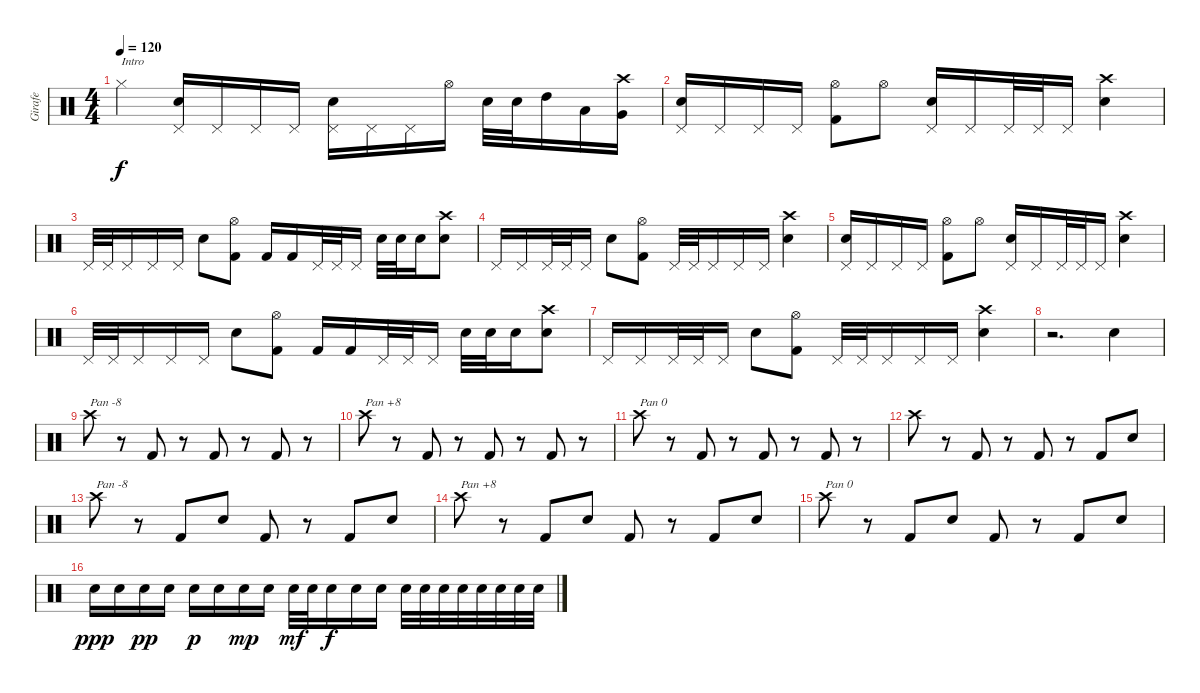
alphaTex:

\track ("Girafe" "Girafe") {instrument percussion}
\staff {score}
\articulation defaults
\ts (4 4)
\tempo 120
\clef neutral
\ks c "Hi-Hat (closed)".4{txt "Intro" dy f}
("Pedal Hi-Hat (hit)" "Electric Snare (hit)").16 "Pedal Hi-Hat (hit)".16 "Pedal Hi-Hat (hit)".16 "Pedal Hi-Hat (hit)".16 ("Pedal Hi-Hat (hit)" "Electric Snare (hit)").16 "Pedal Hi-Hat (hit)".16 "Pedal Hi-Hat (hit)".16 "Hi-Hat (open)".16 "Electric Snare (hit)".32 "Electric Snare (hit)".32 "High Tom (hit)".16 "Low Tom (hit)".16 ("Crash high (hit)" "Very Low Tom (hit)").16 |
("Pedal Hi-Hat (hit)" "Electric Snare (hit)").16 "Pedal Hi-Hat (hit)".16 "Pedal Hi-Hat (hit)".16 "Pedal Hi-Hat (hit)".16 ("Hi-Hat (open)" "Kick (hit) 2").8 "Hi-Hat (open)".8 ("Pedal Hi-Hat (hit)" "Electric Snare (hit)").16 "Pedal Hi-Hat (hit)".16 "Pedal Hi-Hat (hit)".32 "Pedal Hi-Hat (hit)".32 "Pedal Hi-Hat (hit)".16 ("Electric Snare (hit)" "Crash high (hit)").4 |
"Pedal Hi-Hat (hit)".32 "Pedal Hi-Hat (hit)".32 "Pedal Hi-Hat (hit)".16 "Pedal Hi-Hat (hit)".16 "Pedal Hi-Hat (hit)".16 "Electric Snare (hit)".8 ("Kick (hit) 2" "Hi-Hat (open)").8 "Kick (hit) 2".16 "Kick (hit) 2".16 "Pedal Hi-Hat (hit)".32 "Pedal Hi-Hat (hit)".32 "Pedal Hi-Hat (hit)".16 "Electric Snare (hit)".32 "Electric Snare (hit)".32 "Electric Snare (hit)".16 ("Electric Snare (hit)" "Crash high (hit)").8 |
"Pedal Hi-Hat (hit)".16 "Pedal Hi-Hat (hit)".16 "Pedal Hi-Hat (hit)".32 "Pedal Hi-Hat (hit)".32 "Pedal Hi-Hat (hit)".16 "Electric Snare (hit)".8 ("Kick (hit) 2" "Hi-Hat (open)").8 "Pedal Hi-Hat (hit)".32 "Pedal Hi-Hat (hit)".32 "Pedal Hi-Hat (hit)".16 "Pedal Hi-Hat (hit)".16 "Pedal Hi-Hat (hit)".16 ("Crash high (hit)" "Electric Snare (hit)").4 |
("Pedal Hi-Hat (hit)" "Electric Snare (hit)").16 "Pedal Hi-Hat (hit)".16 "Pedal Hi-Hat (hit)".16 "Pedal Hi-Hat (hit)".16 ("Hi-Hat (open)" "Kick (hit) 2").8 "Hi-Hat (open)".8 ("Pedal Hi-Hat (hit)" "Electric Snare (hit)").16 "Pedal Hi-Hat (hit)".16 "Pedal Hi-Hat (hit)".32 "Pedal Hi-Hat (hit)".32 "Pedal Hi-Hat (hit)".16 ("Electric Snare (hit)" "Crash high (hit)").4 |
"Pedal Hi-Hat (hit)".32 "Pedal Hi-Hat (hit)".32 "Pedal Hi-Hat (hit)".16 "Pedal Hi-Hat (hit)".16 "Pedal Hi-Hat (hit)".16 "Electric Snare (hit)".8 ("Kick (hit) 2" "Hi-Hat (open)").8 "Kick (hit) 2".16 "Kick (hit) 2".16 "Pedal Hi-Hat (hit)".32 "Pedal Hi-Hat (hit)".32 "Pedal Hi-Hat (hit)".16 "Electric Snare (hit)".32 "Electric Snare (hit)".32 "Electric Snare (hit)".16 ("Electric Snare (hit)" "Crash high (hit)").8 |
"Pedal Hi-Hat (hit)".16 "Pedal Hi-Hat (hit)".16 "Pedal Hi-Hat (hit)".32 "Pedal Hi-Hat (hit)".32 "Pedal Hi-Hat (hit)".16 "Electric Snare (hit)".8 ("Kick (hit) 2" "Hi-Hat (open)").8 "Pedal Hi-Hat (hit)".32 "Pedal Hi-Hat (hit)".32 "Pedal Hi-Hat (hit)".16 "Pedal Hi-Hat (hit)".16 "Pedal Hi-Hat (hit)".16 ("Crash high (hit)" "Electric Snare (hit)").4 |
r.2{d} "Electric Snare (hit)".4 |
"Crash high (hit)".8{txt "Pan -8" balance 0} r.8 "Kick (hit) 2".8 r.8 "Kick (hit) 2".8 r.8 "Kick (hit) 2".8 r.8 |
"Crash high (hit)".8{txt "Pan +8" balance 16} r.8 "Kick (hit) 2".8 r.8 "Kick (hit) 2".8 r.8 "Kick (hit) 2".8 r.8 |
"Crash high (hit)".8{txt "Pan 0" balance 8} r.8 "Kick (hit) 2".8 r.8 "Kick (hit) 2".8 r.8 "Kick (hit) 2".8 r.8 |
"Crash high (hit)".8 r.8 "Kick (hit) 2".8 r.8 "Kick (hit) 2".8 r.8 "Kick (hit) 2".8 "Electric Snare (hit)".8 |
"Crash high (hit)".8{txt "Pan -8" balance 0} r.8 "Kick (hit) 2".8 "Electric Snare (hit)".8 "Kick (hit) 2".8 r.8 "Kick (hit) 2".8 "Electric Snare (hit)".8 |
"Crash high (hit)".8{txt "Pan +8" balance 16} r.8 "Kick (hit) 2".8 "Electric Snare (hit)".8 "Kick (hit) 2".8 r.8 "Kick (hit) 2".8 "Electric Snare (hit)".8 |
"Crash high (hit)".8{txt "Pan 0" balance 8} r.8 "Kick (hit) 2".8 "Electric Snare (hit)".8 "Kick (hit) 2".8 r.8 "Kick (hit) 2".8 "Electric Snare (hit)".8 |
"Electric Snare (hit)".16{dy ppp} "Electric Snare (hit)".16 "Electric Snare (hit)".16{dy pp} "Electric Snare (hit)".16 "Electric Snare (hit)".16{dy p} "Electric Snare (hit)".16 "Electric Snare (hit)".16{dy mp} "Electric Snare (hit)".16 "Electric Snare (hit)".32{dy mf} "Electric Snare (hit)".32 "Electric Snare (hit)".16{dy f} "Electric Snare (hit)".16 "Electric Snare (hit)".16 "Electric Snare (hit)".32 "Electric Snare (hit)".32 "Electric Snare (hit)".32 "Electric Snare (hit)".32 "Electric Snare (hit)".32 "Electric Snare (hit)".32 "Electric Snare (hit)".32 "Electric Snare (hit)".32
